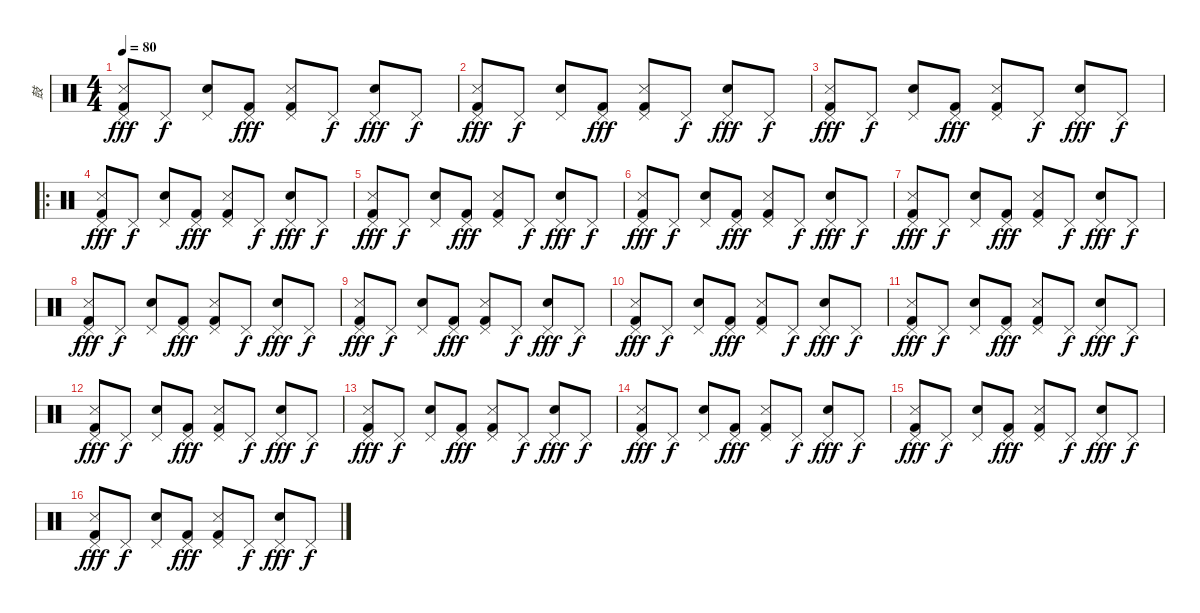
\track ("鼓" "鼓") {instrument percussion}
\staff {score}
\articulation defaults
\ts (4 4)
\tempo 80
\clef neutral
\ks c
("Snare (side stick) 3" "Pedal Hi-Hat (hit)" "Kick (hit) 2").8{dy fff} "Pedal Hi-Hat (hit)".8{dy f} ("Hand Clap (hit)" "Pedal Hi-Hat (hit)").8 ("Pedal Hi-Hat (hit)" "Kick (hit) 2").8{dy fff} ("Snare (side stick) 3" "Pedal Hi-Hat (hit)" "Kick (hit) 2").8 "Pedal Hi-Hat (hit)".8{dy f} ("Hand Clap (hit)" "Pedal Hi-Hat (hit)").8{dy fff} "Pedal Hi-Hat (hit)".8{dy f} |
("Snare (side stick) 3" "Pedal Hi-Hat (hit)" "Kick (hit) 2").8{dy fff} "Pedal Hi-Hat (hit)".8{dy f} ("Hand Clap (hit)" "Pedal Hi-Hat (hit)").8 ("Pedal Hi-Hat (hit)" "Kick (hit) 2").8{dy fff} ("Snare (side stick) 3" "Pedal Hi-Hat (hit)" "Kick (hit) 2").8 "Pedal Hi-Hat (hit)".8{dy f} ("Hand Clap (hit)" "Pedal Hi-Hat (hit)").8{dy fff} "Pedal Hi-Hat (hit)".8{dy f} |
("Snare (side stick) 3" "Pedal Hi-Hat (hit)" "Kick (hit) 2").8{dy fff} "Pedal Hi-Hat (hit)".8{dy f} ("Hand Clap (hit)" "Pedal Hi-Hat (hit)").8 ("Pedal Hi-Hat (hit)" "Kick (hit) 2").8{dy fff} ("Snare (side stick) 3" "Pedal Hi-Hat (hit)" "Kick (hit) 2").8 "Pedal Hi-Hat (hit)".8{dy f} ("Hand Clap (hit)" "Pedal Hi-Hat (hit)").8{dy fff} "Pedal Hi-Hat (hit)".8{dy f} |
\ro
("Snare (side stick) 3" "Pedal Hi-Hat (hit)" "Kick (hit) 2").8{dy fff} "Pedal Hi-Hat (hit)".8{dy f} ("Hand Clap (hit)" "Pedal Hi-Hat (hit)").8 ("Pedal Hi-Hat (hit)" "Kick (hit) 2").8{dy fff} ("Snare (side stick) 3" "Pedal Hi-Hat (hit)" "Kick (hit) 2").8 "Pedal Hi-Hat (hit)".8{dy f} ("Hand Clap (hit)" "Pedal Hi-Hat (hit)").8{dy fff} "Pedal Hi-Hat (hit)".8{dy f} |
("Snare (side stick) 3" "Pedal Hi-Hat (hit)" "Kick (hit) 2").8{dy fff} "Pedal Hi-Hat (hit)".8{dy f} ("Hand Clap (hit)" "Pedal Hi-Hat (hit)").8 ("Pedal Hi-Hat (hit)" "Kick (hit) 2").8{dy fff} ("Snare (side stick) 3" "Pedal Hi-Hat (hit)" "Kick (hit) 2").8 "Pedal Hi-Hat (hit)".8{dy f} ("Hand Clap (hit)" "Pedal Hi-Hat (hit)").8{dy fff} "Pedal Hi-Hat (hit)".8{dy f} |
("Snare (side stick) 3" "Pedal Hi-Hat (hit)" "Kick (hit) 2").8{dy fff} "Pedal Hi-Hat (hit)".8{dy f} ("Hand Clap (hit)" "Pedal Hi-Hat (hit)").8 ("Pedal Hi-Hat (hit)" "Kick (hit) 2").8{dy fff} ("Snare (side stick) 3" "Pedal Hi-Hat (hit)" "Kick (hit) 2").8 "Pedal Hi-Hat (hit)".8{dy f} ("Hand Clap (hit)" "Pedal Hi-Hat (hit)").8{dy fff} "Pedal Hi-Hat (hit)".8{dy f} |
("Snare (side stick) 3" "Pedal Hi-Hat (hit)" "Kick (hit) 2").8{dy fff} "Pedal Hi-Hat (hit)".8{dy f} ("Hand Clap (hit)" "Pedal Hi-Hat (hit)").8 ("Pedal Hi-Hat (hit)" "Kick (hit) 2").8{dy fff} ("Snare (side stick) 3" "Pedal Hi-Hat (hit)" "Kick (hit) 2").8 "Pedal Hi-Hat (hit)".8{dy f} ("Hand Clap (hit)" "Pedal Hi-Hat (hit)").8{dy fff} "Pedal Hi-Hat (hit)".8{dy f} |
("Snare (side stick) 3" "Pedal Hi-Hat (hit)" "Kick (hit) 2").8{dy fff} "Pedal Hi-Hat (hit)".8{dy f} ("Hand Clap (hit)" "Pedal Hi-Hat (hit)").8 ("Pedal Hi-Hat (hit)" "Kick (hit) 2").8{dy fff} ("Snare (side stick) 3" "Pedal Hi-Hat (hit)" "Kick (hit) 2").8 "Pedal Hi-Hat (hit)".8{dy f} ("Hand Clap (hit)" "Pedal Hi-Hat (hit)").8{dy fff} "Pedal Hi-Hat (hit)".8{dy f} |
("Snare (side stick) 3" "Pedal Hi-Hat (hit)" "Kick (hit) 2").8{dy fff} "Pedal Hi-Hat (hit)".8{dy f} ("Hand Clap (hit)" "Pedal Hi-Hat (hit)").8 ("Pedal Hi-Hat (hit)" "Kick (hit) 2").8{dy fff} ("Snare (side stick) 3" "Pedal Hi-Hat (hit)" "Kick (hit) 2").8 "Pedal Hi-Hat (hit)".8{dy f} ("Hand Clap (hit)" "Pedal Hi-Hat (hit)").8{dy fff} "Pedal Hi-Hat (hit)".8{dy f} |
("Snare (side stick) 3" "Pedal Hi-Hat (hit)" "Kick (hit) 2").8{dy fff} "Pedal Hi-Hat (hit)".8{dy f} ("Hand Clap (hit)" "Pedal Hi-Hat (hit)").8 ("Pedal Hi-Hat (hit)" "Kick (hit) 2").8{dy fff} ("Snare (side stick) 3" "Pedal Hi-Hat (hit)" "Kick (hit) 2").8 "Pedal Hi-Hat (hit)".8{dy f} ("Hand Clap (hit)" "Pedal Hi-Hat (hit)").8{dy fff} "Pedal Hi-Hat (hit)".8{dy f} |
("Snare (side stick) 3" "Pedal Hi-Hat (hit)" "Kick (hit) 2").8{dy fff} "Pedal Hi-Hat (hit)".8{dy f} ("Hand Clap (hit)" "Pedal Hi-Hat (hit)").8 ("Pedal Hi-Hat (hit)" "Kick (hit) 2").8{dy fff} ("Snare (side stick) 3" "Pedal Hi-Hat (hit)" "Kick (hit) 2").8 "Pedal Hi-Hat (hit)".8{dy f} ("Hand Clap (hit)" "Pedal Hi-Hat (hit)").8{dy fff} "Pedal Hi-Hat (hit)".8{dy f} |
("Snare (side stick) 3" "Pedal Hi-Hat (hit)" "Kick (hit) 2").8{dy fff} "Pedal Hi-Hat (hit)".8{dy f} ("Hand Clap (hit)" "Pedal Hi-Hat (hit)").8 ("Pedal Hi-Hat (hit)" "Kick (hit) 2").8{dy fff} ("Snare (side stick) 3" "Pedal Hi-Hat (hit)" "Kick (hit) 2").8 "Pedal Hi-Hat (hit)".8{dy f} ("Hand Clap (hit)" "Pedal Hi-Hat (hit)").8{dy fff} "Pedal Hi-Hat (hit)".8{dy f} |
("Snare (side stick) 3" "Pedal Hi-Hat (hit)" "Kick (hit) 2").8{dy fff} "Pedal Hi-Hat (hit)".8{dy f} ("Hand Clap (hit)" "Pedal Hi-Hat (hit)").8 ("Pedal Hi-Hat (hit)" "Kick (hit) 2").8{dy fff} ("Snare (side stick) 3" "Pedal Hi-Hat (hit)" "Kick (hit) 2").8 "Pedal Hi-Hat (hit)".8{dy f} ("Hand Clap (hit)" "Pedal Hi-Hat (hit)").8{dy fff} "Pedal Hi-Hat (hit)".8{dy f} |
("Snare (side stick) 3" "Pedal Hi-Hat (hit)" "Kick (hit) 2").8{dy fff} "Pedal Hi-Hat (hit)".8{dy f} ("Hand Clap (hit)" "Pedal Hi-Hat (hit)").8 ("Pedal Hi-Hat (hit)" "Kick (hit) 2").8{dy fff} ("Snare (side stick) 3" "Pedal Hi-Hat (hit)" "Kick (hit) 2").8 "Pedal Hi-Hat (hit)".8{dy f} ("Hand Clap (hit)" "Pedal Hi-Hat (hit)").8{dy fff} "Pedal Hi-Hat (hit)".8{dy f} |
("Snare (side stick) 3" "Pedal Hi-Hat (hit)" "Kick (hit) 2").8{dy fff} "Pedal Hi-Hat (hit)".8{dy f} ("Hand Clap (hit)" "Pedal Hi-Hat (hit)").8 ("Pedal Hi-Hat (hit)" "Kick (hit) 2").8{dy fff} ("Snare (side stick) 3" "Pedal Hi-Hat (hit)" "Kick (hit) 2").8 "Pedal Hi-Hat (hit)".8{dy f} ("Hand Clap (hit)" "Pedal Hi-Hat (hit)").8{dy fff} "Pedal Hi-Hat (hit)".8{dy f} |
("Snare (side stick) 3" "Pedal Hi-Hat (hit)" "Kick (hit) 2").8{dy fff} "Pedal Hi-Hat (hit)".8{dy f} ("Hand Clap (hit)" "Pedal Hi-Hat (hit)").8 ("Pedal Hi-Hat (hit)" "Kick (hit) 2").8{dy fff} ("Snare (side stick) 3" "Pedal Hi-Hat (hit)" "Kick (hit) 2").8 "Pedal Hi-Hat (hit)".8{dy f} ("Hand Clap (hit)" "Pedal Hi-Hat (hit)").8{dy fff} "Pedal Hi-Hat (hit)".8{dy f}
